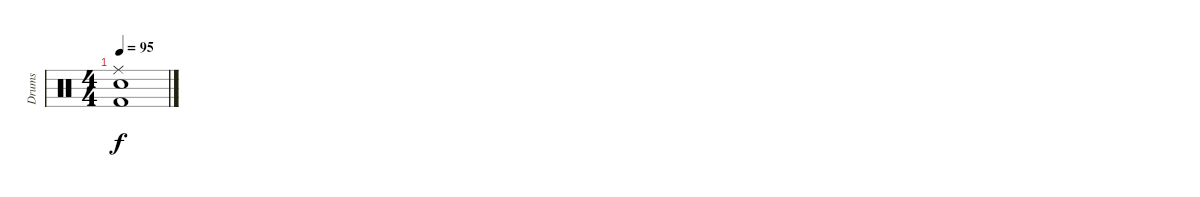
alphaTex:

\track ("Drums" "Drums") {instrument percussion}
\staff {score}
\articulation defaults
\ts (4 4)
\tempo 95
\clef neutral
\ks c
("Ride (middle)" "Electric Snare (hit)" "Kick (hit) 2").1{dy f}
